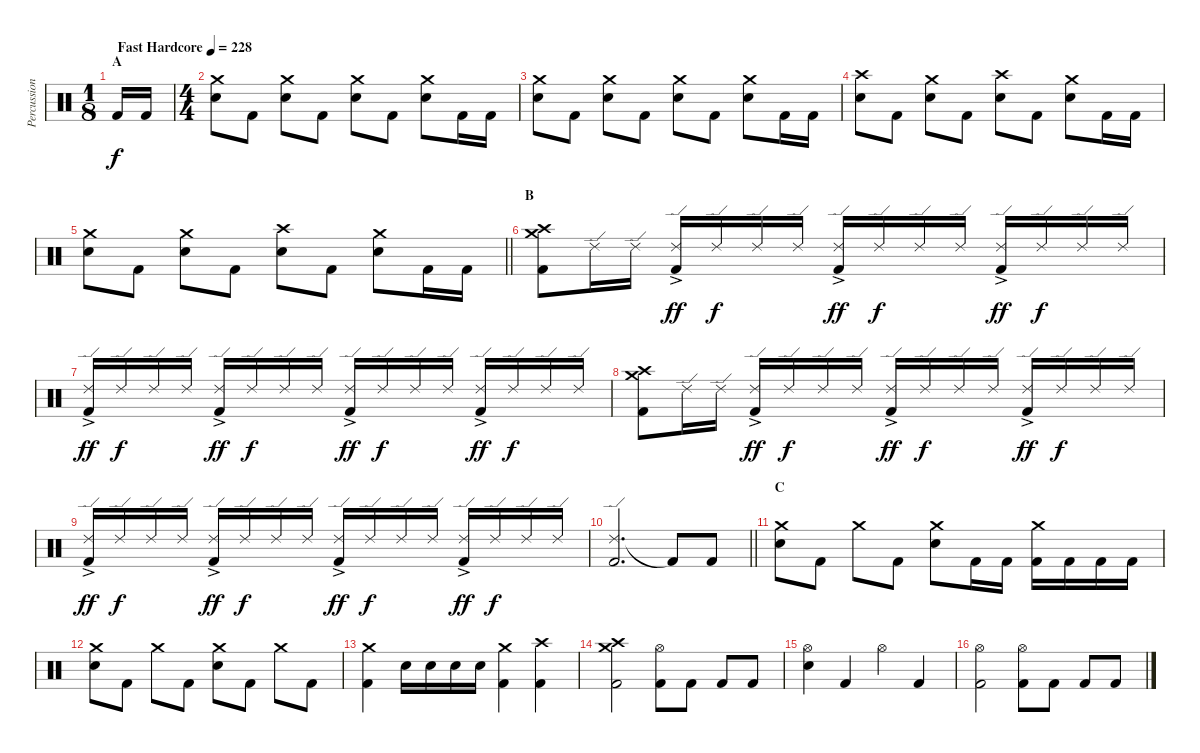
\track ("Percussion" "Percussion") {instrument percussion}
\staff {score}
\articulation defaults
\ts (1 8)
\section ("" "A")
\tempo (228 "Fast Hardcore")
\clef neutral
\ks c "Kick (hit) 2".16{dy f} "Kick (hit) 2".16
|
\ts (4 4)
("Crash medium (hit)" "Electric Snare (hit)").8 "Kick (hit) 2".8 ("Crash medium (hit)" "Electric Snare (hit)").8 "Kick (hit) 2".8 ("Crash medium (hit)" "Electric Snare (hit)").8 "Kick (hit) 2".8 ("Crash medium (hit)" "Electric Snare (hit)").8 "Kick (hit) 2".16 "Kick (hit) 2".16 |
("Crash medium (hit)" "Electric Snare (hit)").8 "Kick (hit) 2".8 ("Crash medium (hit)" "Electric Snare (hit)").8 "Kick (hit) 2".8 ("Crash medium (hit)" "Electric Snare (hit)").8 "Kick (hit) 2".8 ("Crash medium (hit)" "Electric Snare (hit)").8 "Kick (hit) 2".16 "Kick (hit) 2".16 |
("Crash high (hit)" "Electric Snare (hit)").8 "Kick (hit) 2".8 ("Crash medium (hit)" "Electric Snare (hit)").8 "Kick (hit) 2".8 ("Crash high (hit)" "Electric Snare (hit)").8 "Kick (hit) 2".8 ("Crash medium (hit)" "Electric Snare (hit)").8 "Kick (hit) 2".16 "Kick (hit) 2".16 |
\barLineRight lightlight
("Crash medium (hit)" "Electric Snare (hit)").8 "Kick (hit) 2".8 ("Crash medium (hit)" "Electric Snare (hit)").8 "Kick (hit) 2".8 ("Crash high (hit)" "Electric Snare (hit)").8 "Kick (hit) 2".8 ("Crash medium (hit)" "Electric Snare (hit)").8 "Kick (hit) 2".16 "Kick (hit) 2".16 |
\section ("" "B")
("Crash medium (hit)" "Crash high (hit)" "Kick (hit) 2").8 "Ride (edge) 2".16{volume 12} "Ride (edge) 2".16 ("Ride (edge) 2"{ac} "Kick (hit) 2").16{dy ff} "Ride (edge) 2".16{dy f} "Ride (edge) 2".16 "Ride (edge) 2".16 ("Ride (edge) 2"{ac} "Kick (hit) 2").16{dy ff} "Ride (edge) 2".16{dy f} "Ride (edge) 2".16 "Ride (edge) 2".16 ("Ride (edge) 2"{ac} "Kick (hit) 2").16{dy ff} "Ride (edge) 2".16{dy f} "Ride (edge) 2".16 "Ride (edge) 2".16 |
("Ride (edge) 2"{ac} "Kick (hit) 2").16{dy ff} "Ride (edge) 2".16{dy f} "Ride (edge) 2".16 "Ride (edge) 2".16 ("Ride (edge) 2"{ac} "Kick (hit) 2").16{dy ff} "Ride (edge) 2".16{dy f} "Ride (edge) 2".16 "Ride (edge) 2".16 ("Ride (edge) 2"{ac} "Kick (hit) 2").16{dy ff} "Ride (edge) 2".16{dy f} "Ride (edge) 2".16 "Ride (edge) 2".16 ("Ride (edge) 2"{ac} "Kick (hit) 2").16{dy ff} "Ride (edge) 2".16{dy f} "Ride (edge) 2".16 "Ride (edge) 2".16 |
("Crash medium (hit)" "Crash high (hit)" "Kick (hit) 2").8 "Ride (edge) 2".16 "Ride (edge) 2".16 ("Ride (edge) 2"{ac} "Kick (hit) 2").16{dy ff} "Ride (edge) 2".16{dy f} "Ride (edge) 2".16 "Ride (edge) 2".16 ("Ride (edge) 2"{ac} "Kick (hit) 2").16{dy ff} "Ride (edge) 2".16{dy f} "Ride (edge) 2".16 "Ride (edge) 2".16 ("Ride (edge) 2"{ac} "Kick (hit) 2").16{dy ff} "Ride (edge) 2".16{dy f} "Ride (edge) 2".16 "Ride (edge) 2".16 |
("Ride (edge) 2"{ac} "Kick (hit) 2").16{dy ff} "Ride (edge) 2".16{dy f} "Ride (edge) 2".16 "Ride (edge) 2".16 ("Ride (edge) 2"{ac} "Kick (hit) 2").16{dy ff} "Ride (edge) 2".16{dy f} "Ride (edge) 2".16 "Ride (edge) 2".16 ("Ride (edge) 2"{ac} "Kick (hit) 2").16{dy ff} "Ride (edge) 2".16{dy f} "Ride (edge) 2".16 "Ride (edge) 2".16 ("Ride (edge) 2"{ac} "Kick (hit) 2").16{dy ff} "Ride (edge) 2".16{dy f} "Ride (edge) 2".16 "Ride (edge) 2".16 |
\barLineRight lightlight
("Ride (edge) 2" "Kick (hit) 2").2{d} "Kick (hit) 2"{t}.8 "Kick (hit) 2".8{volume 14} |
\section ("" "C")
("Crash medium (hit)" "Electric Snare (hit)").8 "Kick (hit) 2".8 "Crash medium (hit)".8 "Kick (hit) 2".8 ("Crash medium (hit)" "Electric Snare (hit)").8 "Kick (hit) 2".16 "Kick (hit) 2".16 ("Crash medium (hit)" "Kick (hit) 2").16 "Kick (hit) 2".16 "Kick (hit) 2".16 "Kick (hit) 2".16 |
("Crash medium (hit)" "Electric Snare (hit)").8 "Kick (hit) 2".8 "Crash medium (hit)".8 "Kick (hit) 2".8 ("Crash medium (hit)" "Electric Snare (hit)").8 "Kick (hit) 2".8 "Crash medium (hit)".8 "Kick (hit) 2".8 |
("Crash medium (hit)" "Kick (hit) 2").4 "Electric Snare (hit)".16 "Electric Snare (hit)".16 "Electric Snare (hit)".16 "Electric Snare (hit)".16 ("Crash medium (hit)" "Kick (hit) 2").4 ("Crash high (hit)" "Kick (hit) 2").4 |
("Crash medium (hit)" "Crash high (hit)" "Kick (hit) 2").2 ("Hi-Hat (open)" "Kick (hit) 2").8 "Kick (hit) 2".8 "Kick (hit) 2".8 "Kick (hit) 2".8 |
("Hi-Hat (open)" "Electric Snare (hit)").4 "Kick (hit) 2".4 "Hi-Hat (open)".4 "Kick (hit) 2".4 |
("Hi-Hat (open)" "Kick (hit) 2").2 ("Hi-Hat (open)" "Kick (hit) 2").8 "Kick (hit) 2".8 "Kick (hit) 2".8 "Kick (hit) 2".8
